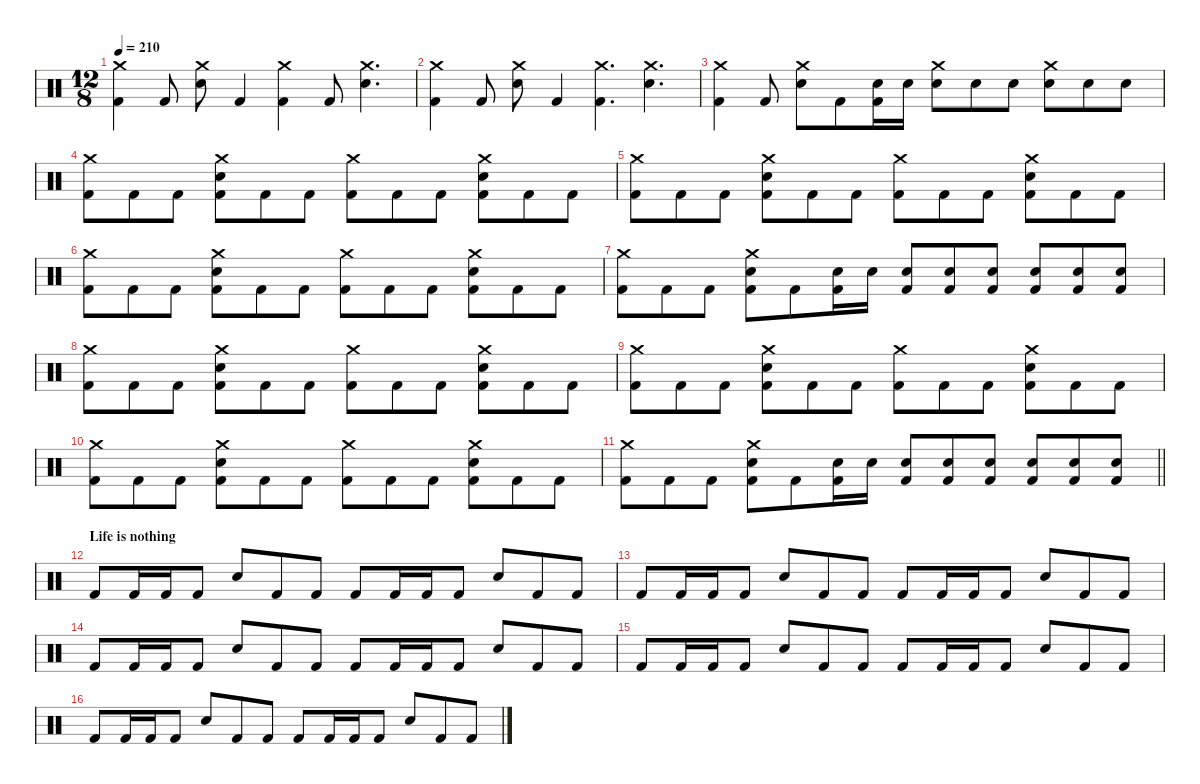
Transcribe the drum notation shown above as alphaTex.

\defaultSystemsLayout 4
\hideDynamics
\bracketExtendMode nobrackets
\singleTrackTrackNamePolicy hidden
\multiTrackTrackNamePolicy hidden
\firstSystemTrackNameMode fullname
\firstSystemTrackNameOrientation horizontal
\otherSystemsTrackNameOrientation horizontal
\track ("Beats" "drm.") {instrument percussion}
\staff {score}
\articulation defaults
\ts (12 8)
\tempo 210
\clef neutral
\ks c
("Crash medium (hit)" "Kick (hit) 2").4{dy f} "Kick (hit) 2".8 ("Crash medium (hit)" "Snare (hit) 2").8 "Kick (hit) 2".4 ("Crash medium (hit)" "Kick (hit) 2").4 "Kick (hit) 2".8 ("Crash medium (hit)" "Snare (hit) 2").4{d} |
("Crash medium (hit)" "Kick (hit) 2").4 "Kick (hit) 2".8 ("Crash medium (hit)" "Snare (hit) 2").8 "Kick (hit) 2".4 ("Crash medium (hit)" "Kick (hit) 2").4{d} ("Crash medium (hit)" "Snare (hit) 2").4{d} |
("Crash medium (hit)" "Kick (hit) 2").4 "Kick (hit) 2".8 ("Crash medium (hit)" "Snare (hit) 2").8 "Kick (hit) 2".8 ("Snare (hit) 2" "Kick (hit) 2").16 "Snare (hit) 2".16 ("Crash medium (hit)" "Snare (hit) 2").8 "Snare (hit) 2".8 "Snare (hit) 2".8 ("Crash medium (hit)" "Snare (hit) 2").8 "Snare (hit) 2".8 "Snare (hit) 2".8 |
("Crash medium (hit)" "Kick (hit) 2").8{dy fff} "Kick (hit) 2".8{dy f} "Kick (hit) 2".8 ("Crash medium (hit)" "Snare (hit) 2" "Kick (hit) 2").8 "Kick (hit) 2".8 "Kick (hit) 2".8 ("Crash medium (hit)" "Kick (hit) 2").8 "Kick (hit) 2".8 "Kick (hit) 2".8 ("Crash medium (hit)" "Snare (hit) 2" "Kick (hit) 2").8 "Kick (hit) 2".8 "Kick (hit) 2".8 |
("Crash medium (hit)" "Kick (hit) 2").8{dy fff} "Kick (hit) 2".8{dy f} "Kick (hit) 2".8 ("Crash medium (hit)" "Snare (hit) 2" "Kick (hit) 2").8 "Kick (hit) 2".8 "Kick (hit) 2".8 ("Crash medium (hit)" "Kick (hit) 2").8 "Kick (hit) 2".8 "Kick (hit) 2".8 ("Crash medium (hit)" "Snare (hit) 2" "Kick (hit) 2").8 "Kick (hit) 2".8 "Kick (hit) 2".8 |
("Crash medium (hit)" "Kick (hit) 2").8{dy fff} "Kick (hit) 2".8{dy f} "Kick (hit) 2".8 ("Crash medium (hit)" "Snare (hit) 2" "Kick (hit) 2").8 "Kick (hit) 2".8 "Kick (hit) 2".8 ("Crash medium (hit)" "Kick (hit) 2").8 "Kick (hit) 2".8 "Kick (hit) 2".8 ("Crash medium (hit)" "Snare (hit) 2" "Kick (hit) 2").8 "Kick (hit) 2".8 "Kick (hit) 2".8 |
("Crash medium (hit)" "Kick (hit) 2").8 "Kick (hit) 2".8 "Kick (hit) 2".8 ("Crash medium (hit)" "Snare (hit) 2" "Kick (hit) 2").8 "Kick (hit) 2".8 ("Snare (hit) 2" "Kick (hit) 2").16 "Snare (hit) 2".16 ("Snare (hit) 2" "Kick (hit) 2").8{dy fff} ("Snare (hit) 2" "Kick (hit) 2").8{dy f} ("Snare (hit) 2" "Kick (hit) 2").8 ("Snare (hit) 2" "Kick (hit) 2").8{dy fff} ("Snare (hit) 2" "Kick (hit) 2").8{dy f} ("Snare (hit) 2" "Kick (hit) 2").8 |
("Crash medium (hit)" "Kick (hit) 2").8{dy fff} "Kick (hit) 2".8{dy f} "Kick (hit) 2".8 ("Crash medium (hit)" "Snare (hit) 2" "Kick (hit) 2").8 "Kick (hit) 2".8 "Kick (hit) 2".8 ("Crash medium (hit)" "Kick (hit) 2").8 "Kick (hit) 2".8 "Kick (hit) 2".8 ("Crash medium (hit)" "Snare (hit) 2" "Kick (hit) 2").8 "Kick (hit) 2".8 "Kick (hit) 2".8 |
("Crash medium (hit)" "Kick (hit) 2").8{dy fff} "Kick (hit) 2".8{dy f} "Kick (hit) 2".8 ("Crash medium (hit)" "Snare (hit) 2" "Kick (hit) 2").8 "Kick (hit) 2".8 "Kick (hit) 2".8 ("Crash medium (hit)" "Kick (hit) 2").8 "Kick (hit) 2".8 "Kick (hit) 2".8 ("Crash medium (hit)" "Snare (hit) 2" "Kick (hit) 2").8 "Kick (hit) 2".8 "Kick (hit) 2".8 |
("Crash medium (hit)" "Kick (hit) 2").8{dy fff} "Kick (hit) 2".8{dy f} "Kick (hit) 2".8 ("Crash medium (hit)" "Snare (hit) 2" "Kick (hit) 2").8 "Kick (hit) 2".8 "Kick (hit) 2".8 ("Crash medium (hit)" "Kick (hit) 2").8 "Kick (hit) 2".8 "Kick (hit) 2".8 ("Crash medium (hit)" "Snare (hit) 2" "Kick (hit) 2").8 "Kick (hit) 2".8 "Kick (hit) 2".8 |
\barLineRight lightlight
("Crash medium (hit)" "Kick (hit) 2").8 "Kick (hit) 2".8 "Kick (hit) 2".8 ("Crash medium (hit)" "Snare (hit) 2" "Kick (hit) 2").8 "Kick (hit) 2".8 ("Snare (hit) 2" "Kick (hit) 2").16 "Snare (hit) 2".16 ("Snare (hit) 2" "Kick (hit) 2").8{dy fff} ("Snare (hit) 2" "Kick (hit) 2").8{dy f} ("Snare (hit) 2" "Kick (hit) 2").8 ("Snare (hit) 2" "Kick (hit) 2").8{dy fff} ("Snare (hit) 2" "Kick (hit) 2").8{dy f} ("Snare (hit) 2" "Kick (hit) 2").8 |
\section ("" "Life is nothing")
"Kick (hit) 2".8 "Kick (hit) 2".16 "Kick (hit) 2".16 "Kick (hit) 2".8 "Snare (hit) 2".8 "Kick (hit) 2".8 "Kick (hit) 2".8 "Kick (hit) 2".8 "Kick (hit) 2".16 "Kick (hit) 2".16 "Kick (hit) 2".8 "Snare (hit) 2".8 "Kick (hit) 2".8 "Kick (hit) 2".8 |
"Kick (hit) 2".8 "Kick (hit) 2".16 "Kick (hit) 2".16 "Kick (hit) 2".8 "Snare (hit) 2".8 "Kick (hit) 2".8 "Kick (hit) 2".8 "Kick (hit) 2".8 "Kick (hit) 2".16 "Kick (hit) 2".16 "Kick (hit) 2".8 "Snare (hit) 2".8 "Kick (hit) 2".8 "Kick (hit) 2".8 |
"Kick (hit) 2".8 "Kick (hit) 2".16 "Kick (hit) 2".16 "Kick (hit) 2".8 "Snare (hit) 2".8 "Kick (hit) 2".8 "Kick (hit) 2".8 "Kick (hit) 2".8 "Kick (hit) 2".16 "Kick (hit) 2".16 "Kick (hit) 2".8 "Snare (hit) 2".8 "Kick (hit) 2".8 "Kick (hit) 2".8 |
"Kick (hit) 2".8 "Kick (hit) 2".16 "Kick (hit) 2".16 "Kick (hit) 2".8 "Snare (hit) 2".8 "Kick (hit) 2".8 "Kick (hit) 2".8 "Kick (hit) 2".8 "Kick (hit) 2".16 "Kick (hit) 2".16 "Kick (hit) 2".8 "Snare (hit) 2".8 "Kick (hit) 2".8 "Kick (hit) 2".8 |
"Kick (hit) 2".8 "Kick (hit) 2".16 "Kick (hit) 2".16 "Kick (hit) 2".8 "Snare (hit) 2".8 "Kick (hit) 2".8 "Kick (hit) 2".8 "Kick (hit) 2".8 "Kick (hit) 2".16 "Kick (hit) 2".16 "Kick (hit) 2".8 "Snare (hit) 2".8 "Kick (hit) 2".8 "Kick (hit) 2".8
